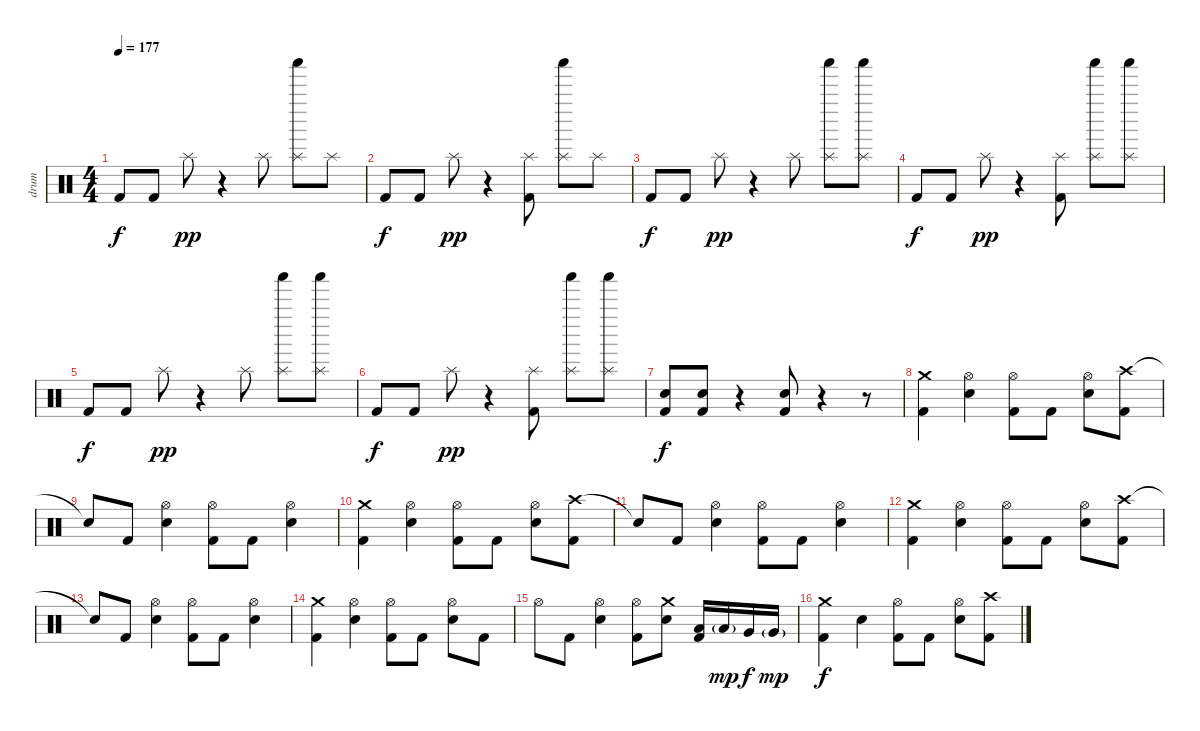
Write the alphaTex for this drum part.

\track ("drum" "drum") {instrument percussion}
\staff {score}
\articulation defaults
\ts (4 4)
\tempo 177
\clef neutral
\ks c "Kick (hit) 2".8{dy f} "Kick (hit) 2".8 "Splash (hit)".8{dy pp}
r.4 "Splash (hit)".8 ("Splash (hit)" "Shaker (hit)").8 "Splash (hit)".8 |
"Kick (hit) 2".8{dy f} "Kick (hit) 2".8 "Splash (hit)".8{dy pp} r.4 ("Splash (hit)" "Kick (hit) 2").8 ("Splash (hit)" "Shaker (hit)").8 "Splash (hit)".8 |
"Kick (hit) 2".8{dy f} "Kick (hit) 2".8 "Splash (hit)".8{dy pp} r.4 "Splash (hit)".8 ("Splash (hit)" "Shaker (hit)").8 ("Splash (hit)" "Shaker (hit)").8 |
"Kick (hit) 2".8{dy f} "Kick (hit) 2".8 "Splash (hit)".8{dy pp} r.4 ("Splash (hit)" "Kick (hit) 2").8 ("Splash (hit)" "Shaker (hit)").8 ("Splash (hit)" "Shaker (hit)").8 |
"Kick (hit) 2".8{dy f} "Kick (hit) 2".8 "Splash (hit)".8{dy pp} r.4 "Splash (hit)".8 ("Splash (hit)" "Shaker (hit)").8 ("Splash (hit)" "Shaker (hit)").8 |
"Kick (hit) 2".8{dy f} "Kick (hit) 2".8 "Splash (hit)".8{dy pp} r.4 ("Splash (hit)" "Kick (hit) 2").8 ("Splash (hit)" "Shaker (hit)").8 ("Splash (hit)" "Shaker (hit)").8 |
("Electric Snare (hit)" "Kick (hit) 2").8{dy f} ("Electric Snare (hit)" "Kick (hit) 2").8 r.4 ("Electric Snare (hit)" "Kick (hit) 2").8 r.4 r.8 |
\section ("" "")
("Crash medium (hit)" "Kick (hit) 2").4 ("Hi-Hat (open)" "Electric Snare (hit)").4 ("Hi-Hat (open)" "Kick (hit) 2").8 "Kick (hit) 2".8 ("Hi-Hat (open)" "Electric Snare (hit)").8 ("Crash high (hit)" "Kick (hit) 2").8 |
"Snare (hit)"{t}.8 "Kick (hit) 2".8 ("Hi-Hat (open)" "Electric Snare (hit)").4 ("Hi-Hat (open)" "Kick (hit) 2").8 "Kick (hit) 2".8 ("Hi-Hat (open)" "Electric Snare (hit)").4 |
("Crash medium (hit)" "Kick (hit) 2").4 ("Hi-Hat (open)" "Electric Snare (hit)").4 ("Hi-Hat (open)" "Kick (hit) 2").8 "Kick (hit) 2".8 ("Hi-Hat (open)" "Electric Snare (hit)").8 ("Crash high (hit)" "Kick (hit) 2").8 |
"Snare (hit)"{t}.8 "Kick (hit) 2".8 ("Hi-Hat (open)" "Electric Snare (hit)").4 ("Hi-Hat (open)" "Kick (hit) 2").8 "Kick (hit) 2".8 ("Hi-Hat (open)" "Electric Snare (hit)").4 |
("Crash medium (hit)" "Kick (hit) 2").4 ("Hi-Hat (open)" "Electric Snare (hit)").4 ("Hi-Hat (open)" "Kick (hit) 2").8 "Kick (hit) 2".8 ("Hi-Hat (open)" "Electric Snare (hit)").8 ("Crash high (hit)" "Kick (hit) 2").8 |
"Snare (hit)"{t}.8 "Kick (hit) 2".8 ("Hi-Hat (open)" "Electric Snare (hit)").4 ("Hi-Hat (open)" "Kick (hit) 2").8 "Kick (hit) 2".8 ("Hi-Hat (open)" "Electric Snare (hit)").4 |
("Crash medium (hit)" "Kick (hit) 2").4 ("Hi-Hat (open)" "Electric Snare (hit)").4 ("Hi-Hat (open)" "Kick (hit) 2").8 "Kick (hit) 2".8 ("Hi-Hat (open)" "Electric Snare (hit)").8 "Kick (hit) 2".8 |
"Hi-Hat (open)".8 "Kick (hit) 2".8 ("Hi-Hat (open)" "Electric Snare (hit)").4 ("Hi-Hat (open)" "Kick (hit) 2").8 ("Crash medium (hit)" "Electric Snare (hit)").8 ("Low Tom (hit)" "Kick (hit) 2").16 "Low Tom (hit)"{g}.16{dy mp} "Very Low Tom (hit)".16{dy f} "Very Low Tom (hit)"{g}.16{dy mp} |
("Crash medium (hit)" "Kick (hit) 2").4{dy f} "Electric Snare (hit)".4 ("Hi-Hat (open)" "Kick (hit) 2").8 "Kick (hit) 2".8 ("Hi-Hat (open)" "Electric Snare (hit)").8 ("Crash high (hit)" "Kick (hit) 2").8
